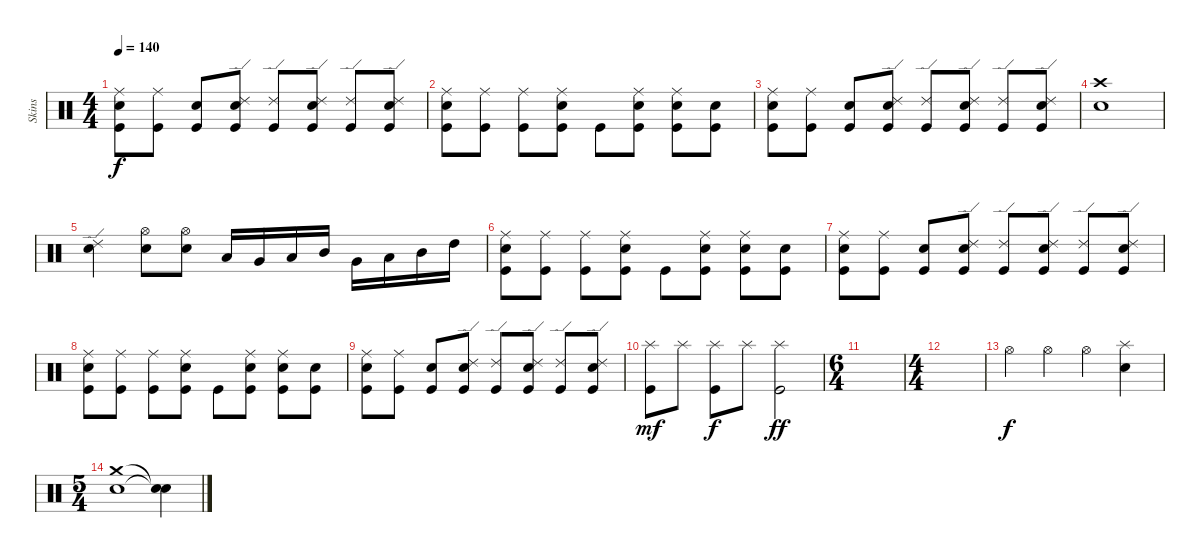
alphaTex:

\track ("Skins" "Skins") {instrument percussion}
\staff {score}
\articulation defaults
\ts (4 4)
\tempo 140
\clef neutral
\ks c
("Ride (middle)" "Snare (hit) 2" "Kick (hit)").8{dy f} ("Ride (middle)" "Kick (hit)").8 ("Snare (hit) 2" "Kick (hit)").8 ("Ride (edge) 2" "Electric Snare (hit)" "Kick (hit)").8 ("Ride (edge) 2" "Kick (hit)").8 ("Ride (edge) 2" "Electric Snare (hit)" "Kick (hit)").8 ("Ride (edge) 2" "Kick (hit)").8 ("Ride (edge) 2" "Electric Snare (hit)" "Kick (hit)").8 |
("Ride (middle)" "Snare (hit) 2" "Kick (hit)").8 ("Ride (middle)" "Kick (hit)").8 ("Ride (middle)" "Kick (hit)").8 ("Ride (middle)" "Snare (hit) 2" "Kick (hit)").8 "Kick (hit)".8 ("Ride (middle)" "Snare (hit) 2" "Kick (hit)").8 ("Ride (middle)" "Snare (hit) 2" "Kick (hit)").8 ("Electric Snare (hit)" "Kick (hit)").8 |
("Ride (middle)" "Snare (hit) 2" "Kick (hit)").8 ("Ride (middle)" "Kick (hit)").8 ("Snare (hit) 2" "Kick (hit)").8 ("Ride (edge) 2" "Electric Snare (hit)" "Kick (hit)").8 ("Ride (edge) 2" "Kick (hit)").8 ("Ride (edge) 2" "Electric Snare (hit)" "Kick (hit)").8 ("Ride (edge) 2" "Kick (hit)").8 ("Ride (edge) 2" "Electric Snare (hit)" "Kick (hit)").8 |
("Crash high (hit)" "Electric Snare (hit)").1 |
("Ride (edge) 2" "Snare (hit) 2").4 ("Hi-Hat (open)" "Electric Snare (hit)").8 ("Hi-Hat (open)" "Electric Snare (hit)").8 "Low Floor Tom (hit)".16 "Very Low Tom (hit)".16 "Low Tom (hit)".16 "Mid Tom (hit)".16 "Very Low Tom (hit)".16 "Low Tom (hit)".16 "Mid Tom (hit)".16 "High Tom (hit)".16 |
("Ride (middle)" "Snare (hit) 2" "Kick (hit)").8 ("Ride (middle)" "Kick (hit)").8 ("Ride (middle)" "Kick (hit)").8 ("Ride (middle)" "Snare (hit) 2" "Kick (hit)").8 "Kick (hit)".8 ("Ride (middle)" "Snare (hit) 2" "Kick (hit)").8 ("Ride (middle)" "Snare (hit) 2" "Kick (hit)").8 ("Electric Snare (hit)" "Kick (hit)").8 |
("Ride (middle)" "Snare (hit) 2" "Kick (hit)").8 ("Ride (middle)" "Kick (hit)").8 ("Snare (hit) 2" "Kick (hit)").8 ("Ride (edge) 2" "Electric Snare (hit)" "Kick (hit)").8 ("Ride (edge) 2" "Kick (hit)").8 ("Ride (edge) 2" "Electric Snare (hit)" "Kick (hit)").8 ("Ride (edge) 2" "Kick (hit)").8 ("Ride (edge) 2" "Electric Snare (hit)" "Kick (hit)").8 |
("Ride (middle)" "Snare (hit) 2" "Kick (hit)").8 ("Ride (middle)" "Kick (hit)").8 ("Ride (middle)" "Kick (hit)").8 ("Ride (middle)" "Snare (hit) 2" "Kick (hit)").8 "Kick (hit)".8 ("Ride (middle)" "Snare (hit) 2" "Kick (hit)").8 ("Ride (middle)" "Snare (hit) 2" "Kick (hit)").8 ("Electric Snare (hit)" "Kick (hit)").8 |
("Ride (middle)" "Snare (hit) 2" "Kick (hit)").8 ("Ride (middle)" "Kick (hit)").8 ("Snare (hit) 2" "Kick (hit)").8 ("Ride (edge) 2" "Electric Snare (hit)" "Kick (hit)").8 ("Ride (edge) 2" "Kick (hit)").8 ("Ride (edge) 2" "Electric Snare (hit)" "Kick (hit)").8 ("Ride (edge) 2" "Kick (hit)").8 ("Ride (edge) 2" "Electric Snare (hit)" "Kick (hit)").8 |
("Splash (hit)" "Kick (hit)").8{dy mf} "Splash (hit)".8 ("Splash (hit)" "Kick (hit)").8{dy f} "Splash (hit)".8 ("Splash (hit)" "Kick (hit)").2{dy ff} |
\ts (6 4)
|
\ts (4 4)
|
"Hi-Hat (open)".4{dy f} "Hi-Hat (open)".4 "Hi-Hat (open)".4 ("Splash (hit)" "Snare (hit) 2").4 |
\ts (5 4)
("Crash medium (hit)" "Electric Snare (hit)").1 ("Snare (hit)"{t} "Snare (hit)"{t}).4
